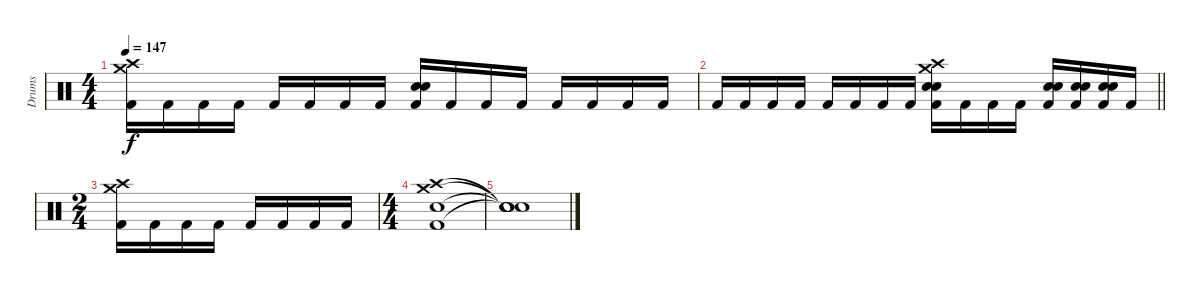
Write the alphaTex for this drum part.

\track ("Drums" "Drums") {instrument percussion}
\staff
\articulation defaults
\ts (4 4)
\tempo 147
\clef neutral
\ks c
("Crash high (hit)" "Kick (hit) 2" "Crash medium (hit)").16{dy f} "Kick (hit) 2".16 "Kick (hit) 2".16 "Kick (hit) 2".16 "Kick (hit) 2".16 "Kick (hit) 2".16 "Kick (hit) 2".16 "Kick (hit) 2".16 ("Kick (hit) 2" "Electric Snare (hit)" "Snare (hit) 2").16 "Kick (hit) 2".16 "Kick (hit) 2".16 "Kick (hit) 2".16 "Kick (hit) 2".16 "Kick (hit) 2".16 "Kick (hit) 2".16 "Kick (hit) 2".16 |
\barLineRight lightlight "Kick (hit) 2".16 "Kick (hit) 2".16 "Kick (hit) 2".16 "Kick (hit) 2".16 "Kick (hit) 2".16 "Kick (hit) 2".16 "Kick (hit) 2".16 "Kick (hit) 2".16
("Crash medium (hit)" "Crash high (hit)" "Kick (hit) 2" "Electric Snare (hit)" "Snare (hit) 2").16 "Kick (hit) 2".16 "Kick (hit) 2".16 "Kick (hit) 2".16 ("Kick (hit) 2" "Electric Snare (hit)" "Snare (hit) 2").16 ("Kick (hit) 2" "Electric Snare (hit)" "Snare (hit) 2").16 ("Kick (hit) 2" "Electric Snare (hit)" "Snare (hit) 2").16 "Kick (hit) 2".16 |
\ts (2 4)
("Crash high (hit)" "Kick (hit) 2" "Crash medium (hit)").16 "Kick (hit) 2".16 "Kick (hit) 2".16 "Kick (hit) 2".16 "Kick (hit) 2".16 "Kick (hit) 2".16 "Kick (hit) 2".16 "Kick (hit) 2".16 |
\ts (4 4)
("Crash high (hit)" "Kick (hit) 2" "Crash medium (hit)" "Snare (hit) 2").1 |
("Snare (hit)"{t} "Snare (hit)"{t} "Snare (hit)"{t} "Snare (hit)"{t}).1
